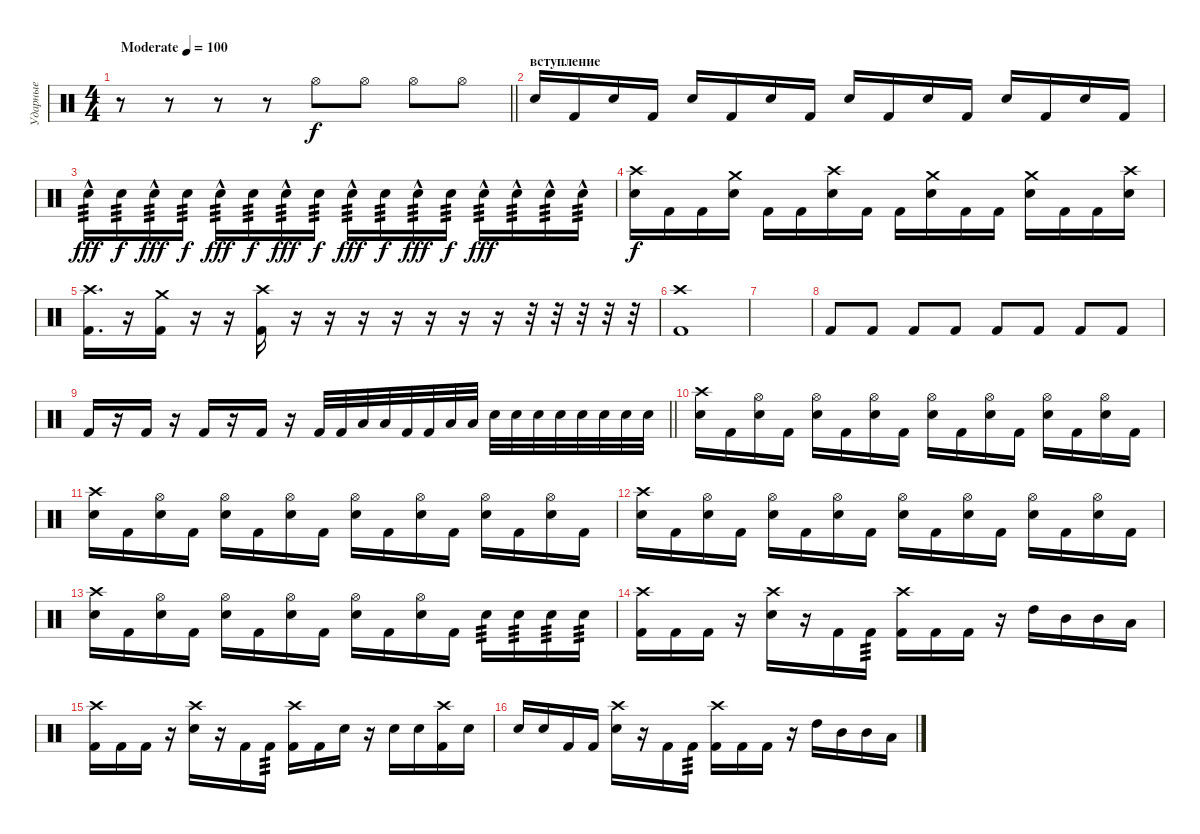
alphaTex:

\track ("Ударные" "Ударные") {instrument percussion}
\staff {score}
\articulation defaults
\ts (4 4)
\tempo (100 "Moderate")
\clef neutral
\barLineRight lightlight
\ks c
r.8{dy f} r.8 r.8 r.8 "Hi-Hat (open)".8 "Hi-Hat (open)".8 "Hi-Hat (open)".8 "Hi-Hat (open)".8 |
\section ("" "вступление")
"Electric Snare (hit)".16 "Kick (hit) 2".16 "Electric Snare (hit)".16 "Kick (hit) 2".16 "Electric Snare (hit)".16 "Kick (hit) 2".16 "Electric Snare (hit)".16 "Kick (hit) 2".16 "Electric Snare (hit)".16 "Kick (hit) 2".16 "Electric Snare (hit)".16 "Kick (hit) 2".16 "Electric Snare (hit)".16 "Kick (hit) 2".16 "Electric Snare (hit)".16 "Kick (hit) 2".16 |
"Electric Snare (hit)"{hac}.16{tp 3 dy fff} "Electric Snare (hit)".16{tp 3 dy f} "Electric Snare (hit)"{hac}.16{tp 3 dy fff} "Electric Snare (hit)".16{tp 3 dy f} "Electric Snare (hit)"{hac}.16{tp 3 dy fff} "Electric Snare (hit)".16{tp 3 dy f} "Electric Snare (hit)"{hac}.16{tp 3 dy fff} "Electric Snare (hit)".16{tp 3 dy f} "Electric Snare (hit)"{hac}.16{tp 3 dy fff} "Electric Snare (hit)".16{tp 3 dy f} "Electric Snare (hit)"{hac}.16{tp 3 dy fff} "Electric Snare (hit)".16{tp 3 dy f} "Electric Snare (hit)"{hac}.16{tp 3 dy fff} "Electric Snare (hit)"{hac}.16{tp 3} "Electric Snare (hit)"{hac}.16{tp 3} "Electric Snare (hit)"{hac}.16{tp 3} |
("Crash high (hit)" "Electric Snare (hit)").16{dy f} "Kick (hit) 2".16 "Kick (hit) 2".16 ("Crash medium (hit)" "Electric Snare (hit)").16 "Kick (hit) 2".16 "Kick (hit) 2".16 ("Crash high (hit)" "Electric Snare (hit)").16 "Kick (hit) 2".16 "Kick (hit) 2".16 ("Crash medium (hit)" "Electric Snare (hit)").16 "Kick (hit) 2".16 "Kick (hit) 2".16 ("Crash medium (hit)" "Electric Snare (hit)").16 "Kick (hit) 2".16 "Kick (hit) 2".16 ("Crash high (hit)" "Electric Snare (hit)").16 |
("Crash high (hit)" "Kick (hit) 2").16{d} r.16 ("Crash medium (hit)" "Kick (hit) 2").16 r.16 r.16 ("Crash high (hit)" "Kick (hit) 2").16 r.16 r.16 r.16 r.16 r.16 r.16 r.16 r.32 r.32 r.32 r.32 r.32 |
("Crash high (hit)" "Kick (hit) 2").1 |
|
"Kick (hit) 2".8 "Kick (hit) 2".8 "Kick (hit) 2".8 "Kick (hit) 2".8 "Kick (hit) 2".8 "Kick (hit) 2".8 "Kick (hit) 2".8 "Kick (hit) 2".8 |
\barLineRight lightlight "Kick (hit) 2".16
r.16 "Kick (hit) 2".16 r.16 "Kick (hit) 2".16 r.16 "Kick (hit) 2".16 r.16 "Kick (hit) 2".32 "Kick (hit) 2".32 "Low Tom (hit)".32 "Low Tom (hit)".32 "Kick (hit) 2".32 "Kick (hit) 2".32 "Low Tom (hit)".32 "Low Tom (hit)".32 "Electric Snare (hit)".32 "Electric Snare (hit)".32 "Electric Snare (hit)".32 "Electric Snare (hit)".32 "Electric Snare (hit)".32 "Electric Snare (hit)".32 "Electric Snare (hit)".32 "Electric Snare (hit)".32 |
("Crash high (hit)" "Electric Snare (hit)").16 "Kick (hit) 2".16 ("Hi-Hat (open)" "Electric Snare (hit)").16 "Kick (hit) 2".16 ("Hi-Hat (open)" "Electric Snare (hit)").16 "Kick (hit) 2".16 ("Hi-Hat (open)" "Electric Snare (hit)").16 "Kick (hit) 2".16 ("Hi-Hat (open)" "Electric Snare (hit)").16 "Kick (hit) 2".16 ("Hi-Hat (open)" "Electric Snare (hit)").16 "Kick (hit) 2".16 ("Hi-Hat (open)" "Electric Snare (hit)").16 "Kick (hit) 2".16 ("Hi-Hat (open)" "Electric Snare (hit)").16 "Kick (hit) 2".16 |
("Crash high (hit)" "Electric Snare (hit)").16 "Kick (hit) 2".16 ("Hi-Hat (open)" "Electric Snare (hit)").16 "Kick (hit) 2".16 ("Hi-Hat (open)" "Electric Snare (hit)").16 "Kick (hit) 2".16 ("Hi-Hat (open)" "Electric Snare (hit)").16 "Kick (hit) 2".16 ("Hi-Hat (open)" "Electric Snare (hit)").16 "Kick (hit) 2".16 ("Hi-Hat (open)" "Electric Snare (hit)").16 "Kick (hit) 2".16 ("Hi-Hat (open)" "Electric Snare (hit)").16 "Kick (hit) 2".16 ("Hi-Hat (open)" "Electric Snare (hit)").16 "Kick (hit) 2".16 |
("Crash high (hit)" "Electric Snare (hit)").16 "Kick (hit) 2".16 ("Hi-Hat (open)" "Electric Snare (hit)").16 "Kick (hit) 2".16 ("Hi-Hat (open)" "Electric Snare (hit)").16 "Kick (hit) 2".16 ("Hi-Hat (open)" "Electric Snare (hit)").16 "Kick (hit) 2".16 ("Hi-Hat (open)" "Electric Snare (hit)").16 "Kick (hit) 2".16 ("Hi-Hat (open)" "Electric Snare (hit)").16 "Kick (hit) 2".16 ("Hi-Hat (open)" "Electric Snare (hit)").16 "Kick (hit) 2".16 ("Hi-Hat (open)" "Electric Snare (hit)").16 "Kick (hit) 2".16 |
("Crash high (hit)" "Electric Snare (hit)").16 "Kick (hit) 2".16 ("Hi-Hat (open)" "Electric Snare (hit)").16 "Kick (hit) 2".16 ("Hi-Hat (open)" "Electric Snare (hit)").16 "Kick (hit) 2".16 ("Hi-Hat (open)" "Electric Snare (hit)").16 "Kick (hit) 2".16 ("Hi-Hat (open)" "Electric Snare (hit)").16 "Kick (hit) 2".16 ("Hi-Hat (open)" "Electric Snare (hit)").16 "Kick (hit) 2".16 "Electric Snare (hit)".16{tp 3} "Electric Snare (hit)".16{tp 3} "Electric Snare (hit)".16{tp 3} "Electric Snare (hit)".16{tp 3} |
("Crash high (hit)" "Kick (hit) 2").16 "Kick (hit) 2".16 "Kick (hit) 2".16 r.16 ("Crash high (hit)" "Electric Snare (hit)").16 r.16 "Kick (hit) 2".16 "Kick (hit) 2".16{tp 3} ("Crash high (hit)" "Kick (hit) 2").16 "Kick (hit) 2".16 "Kick (hit) 2".16 r.16 "High Tom (hit)".16 "Mid Tom (hit)".16 "Mid Tom (hit)".16 "Low Tom (hit)".16 |
("Crash high (hit)" "Kick (hit) 2").16 "Kick (hit) 2".16 "Kick (hit) 2".16 r.16 ("Crash high (hit)" "Electric Snare (hit)").16 r.16 "Kick (hit) 2".16 "Kick (hit) 2".16{tp 3} ("Crash high (hit)" "Kick (hit) 2").16 "Kick (hit) 2".16 "Electric Snare (hit)".16 r.16 "Electric Snare (hit)".16 "Electric Snare (hit)".16 ("Crash high (hit)" "Kick (hit) 2").16 "Electric Snare (hit)".16 |
"Electric Snare (hit)".16 "Electric Snare (hit)".16 "Kick (hit) 2".16 "Kick (hit) 2".16 ("Crash high (hit)" "Electric Snare (hit)").16 r.16 "Kick (hit) 2".16 "Kick (hit) 2".16{tp 3} ("Crash high (hit)" "Kick (hit) 2").16 "Kick (hit) 2".16 "Kick (hit) 2".16 r.16 "High Tom (hit)".16 "Mid Tom (hit)".16 "Mid Tom (hit)".16 "Low Tom (hit)".16
